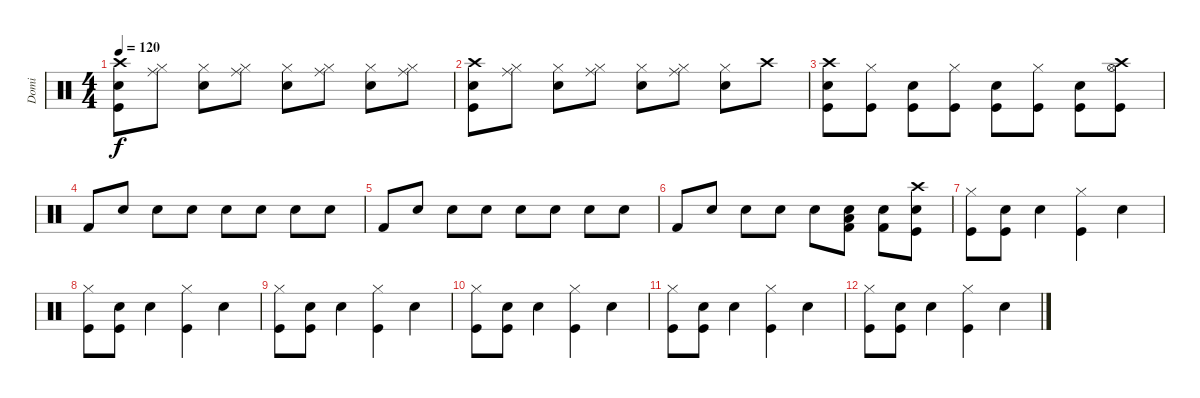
\track ("Domi" "Domi") {instrument percussion}
\staff {score}
\articulation defaults
\ts (4 4)
\tempo 120
\clef neutral
\ks c
("Kick (hit)" "Snare (hit) 2" "Crash high (hit)").8{dy f} ("Ride (middle)" "Hi-Hat (closed)").8 ("Hi-Hat (closed)" "Snare (hit) 2").8 ("Ride (middle)" "Hi-Hat (closed)").8 ("Hi-Hat (closed)" "Snare (hit) 2").8 ("Ride (middle)" "Hi-Hat (closed)").8 ("Hi-Hat (closed)" "Snare (hit) 2").8 ("Ride (middle)" "Hi-Hat (closed)").8 |
("Kick (hit)" "Snare (hit) 2" "Crash high (hit)").8 ("Ride (middle)" "Hi-Hat (closed)").8 ("Hi-Hat (closed)" "Snare (hit) 2").8 ("Ride (middle)" "Hi-Hat (closed)").8 ("Hi-Hat (closed)" "Snare (hit) 2").8 ("Ride (middle)" "Hi-Hat (closed)").8 ("Hi-Hat (closed)" "Snare (hit) 2").8 "Crash high (hit)".8 |
("Crash high (hit)" "Snare (hit) 2" "Kick (hit)").8 ("Hi-Hat (closed)" "Kick (hit)").8 ("Snare (hit) 2" "Kick (hit)").8 ("Hi-Hat (closed)" "Kick (hit)").8 ("Snare (hit) 2" "Kick (hit)").8 ("Hi-Hat (closed)" "Kick (hit)").8 ("Snare (hit) 2" "Kick (hit)").8 ("Hi-Hat (open)" "Crash high (hit)" "Kick (hit)").8 |
"Kick (hit) 2".8 "Snare (hit) 2".8 "Snare (hit) 2".8 "Snare (hit) 2".8 "Snare (hit) 2".8 "Snare (hit) 2".8 "Snare (hit) 2".8 "Snare (hit) 2".8 |
"Kick (hit) 2".8 "Snare (hit) 2".8 "Snare (hit) 2".8 "Snare (hit) 2".8 "Snare (hit) 2".8 "Snare (hit) 2".8 "Snare (hit) 2".8 "Snare (hit) 2".8 |
"Kick (hit) 2".8 "Snare (hit) 2".8 "Snare (hit) 2".8 "Snare (hit) 2".8 "Snare (hit) 2".8 ("Low Floor Tom (hit)" "Snare (hit) 2" "Kick (hit) 2").8 ("Snare (hit) 2" "Kick (hit) 2").8 ("Crash high (hit)" "Snare (hit) 2" "Kick (hit)").8 |
("Hi-Hat (closed)" "Kick (hit)").8 ("Snare (hit) 2" "Kick (hit)").8 "Snare (hit) 2".4 ("Hi-Hat (closed)" "Kick (hit)").4 "Snare (hit) 2".4 |
("Hi-Hat (closed)" "Kick (hit)").8 ("Snare (hit) 2" "Kick (hit)").8 "Snare (hit) 2".4 ("Hi-Hat (closed)" "Kick (hit)").4 "Snare (hit) 2".4 |
("Hi-Hat (closed)" "Kick (hit)").8 ("Snare (hit) 2" "Kick (hit)").8 "Snare (hit) 2".4 ("Hi-Hat (closed)" "Kick (hit)").4 "Snare (hit) 2".4 |
("Hi-Hat (closed)" "Kick (hit)").8 ("Snare (hit) 2" "Kick (hit)").8 "Snare (hit) 2".4 ("Hi-Hat (closed)" "Kick (hit)").4 "Snare (hit) 2".4 |
("Hi-Hat (closed)" "Kick (hit)").8 ("Snare (hit) 2" "Kick (hit)").8 "Snare (hit) 2".4 ("Hi-Hat (closed)" "Kick (hit)").4 "Snare (hit) 2".4 |
("Hi-Hat (closed)" "Kick (hit)").8 ("Snare (hit) 2" "Kick (hit)").8 "Snare (hit) 2".4 ("Hi-Hat (closed)" "Kick (hit)").4 "Snare (hit) 2".4
